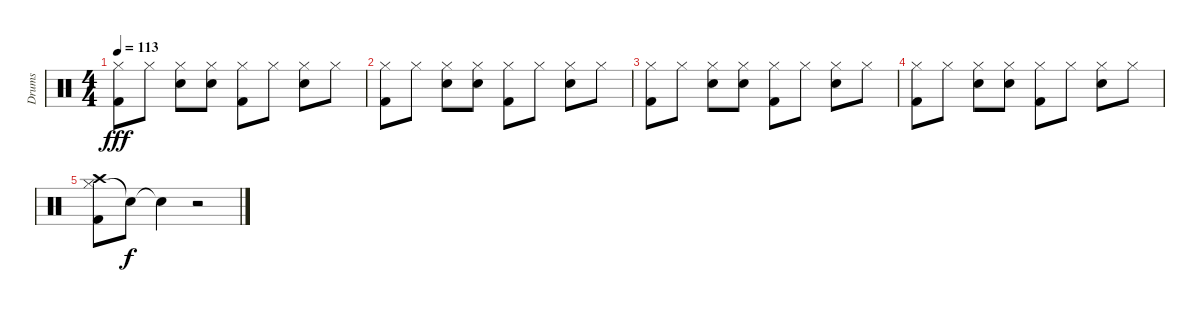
\track ("Drums" "Drums") {instrument percussion}
\staff {score}
\articulation defaults
\ts (4 4)
\tempo 113
\clef neutral
\ks c
("Hi-Hat (closed)" "Kick (hit) 2").8{dy fff} "Hi-Hat (closed)".8 ("Hi-Hat (closed)" "Electric Snare (hit)").8 ("Hi-Hat (closed)" "Electric Snare (hit)").8 ("Hi-Hat (closed)" "Kick (hit) 2").8 "Hi-Hat (closed)".8 ("Hi-Hat (closed)" "Electric Snare (hit)").8 "Hi-Hat (closed)".8 |
("Hi-Hat (closed)" "Kick (hit) 2").8 "Hi-Hat (closed)".8 ("Hi-Hat (closed)" "Electric Snare (hit)").8 ("Hi-Hat (closed)" "Electric Snare (hit)").8 ("Hi-Hat (closed)" "Kick (hit) 2").8 "Hi-Hat (closed)".8 ("Hi-Hat (closed)" "Electric Snare (hit)").8 "Hi-Hat (closed)".8 |
("Hi-Hat (closed)" "Kick (hit) 2").8 "Hi-Hat (closed)".8 ("Hi-Hat (closed)" "Electric Snare (hit)").8 ("Hi-Hat (closed)" "Electric Snare (hit)").8 ("Hi-Hat (closed)" "Kick (hit) 2").8 "Hi-Hat (closed)".8 ("Hi-Hat (closed)" "Electric Snare (hit)").8 "Hi-Hat (closed)".8 |
("Hi-Hat (closed)" "Kick (hit) 2").8 "Hi-Hat (closed)".8 ("Hi-Hat (closed)" "Electric Snare (hit)").8 ("Hi-Hat (closed)" "Electric Snare (hit)").8 ("Hi-Hat (closed)" "Kick (hit) 2").8 "Hi-Hat (closed)".8 ("Hi-Hat (closed)" "Electric Snare (hit)").8 "Hi-Hat (closed)".8 |
("Hi-Hat (closed)" "Crash high (hit)" "Kick (hit) 2").8 "Snare (hit)"{t}.8{dy f} "Snare (hit)"{t}.4 r.2
